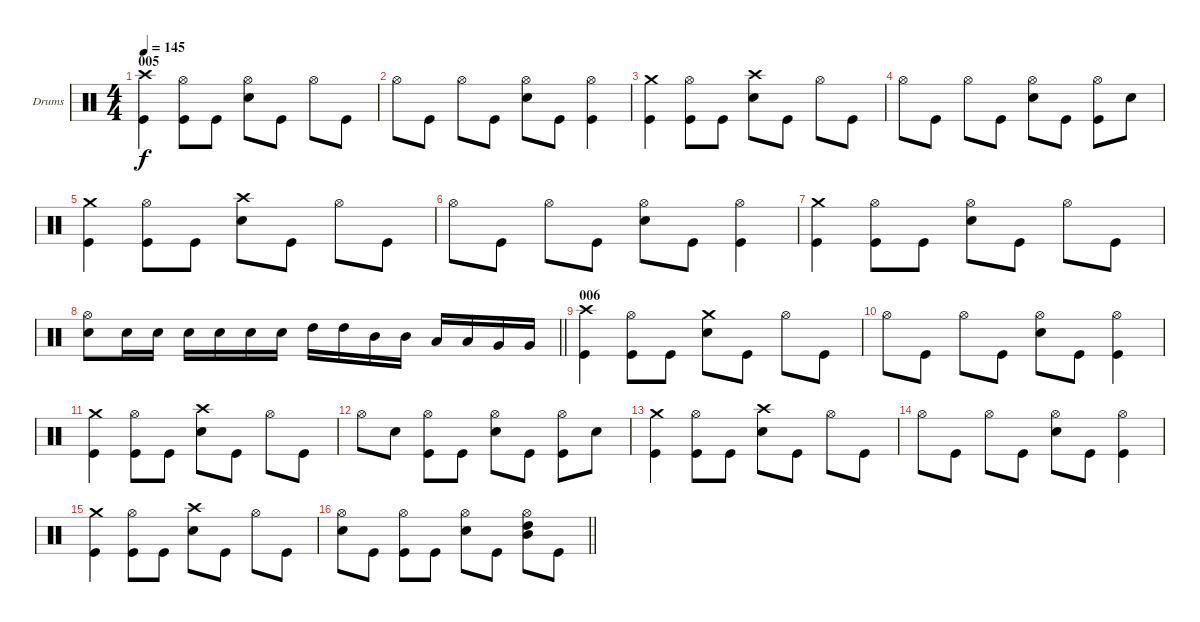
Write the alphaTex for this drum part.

\bracketExtendMode groupsimilarinstruments
\firstSystemTrackNameOrientation horizontal
\otherSystemsTrackNameOrientation horizontal
\track ("drums (Anton Zulganov)" "Drums") {instrument percussion}
\staff {score}
\articulation defaults
\ts (4 4)
\section ("" "005")
\tempo 145
\clef neutral
\ks aminor
("Kick (hit)" "Crash high (hit)").4{dy f} ("Hi-Hat (open)" "Kick (hit)").8 "Kick (hit)".8 ("Hi-Hat (open)" "Snare (hit) 2").8 "Kick (hit)".8 "Hi-Hat (open)".8 "Kick (hit)".8 |
"Hi-Hat (open)".8 "Kick (hit)".8 "Hi-Hat (open)".8 "Kick (hit)".8 ("Hi-Hat (open)" "Snare (hit) 2").8 "Kick (hit)".8 ("Hi-Hat (open)" "Kick (hit)").4 |
("Crash medium (hit)" "Kick (hit)").4 ("Hi-Hat (open)" "Kick (hit)").8 "Kick (hit)".8 ("Snare (hit) 2" "Crash high (hit)").8 "Kick (hit)".8 "Hi-Hat (open)".8 "Kick (hit)".8 |
"Hi-Hat (open)".8 "Kick (hit)".8 "Hi-Hat (open)".8 "Kick (hit)".8 ("Hi-Hat (open)" "Snare (hit) 2").8 "Kick (hit)".8 ("Hi-Hat (open)" "Kick (hit)").8 "Snare (hit) 2".8 |
("Crash medium (hit)" "Kick (hit)").4 ("Hi-Hat (open)" "Kick (hit)").8 "Kick (hit)".8 ("Snare (hit) 2" "Crash high (hit)").8 "Kick (hit)".8 "Hi-Hat (open)".8 "Kick (hit)".8 |
"Hi-Hat (open)".8 "Kick (hit)".8 "Hi-Hat (open)".8 "Kick (hit)".8 ("Hi-Hat (open)" "Snare (hit) 2").8 "Kick (hit)".8 ("Hi-Hat (open)" "Kick (hit)").4 |
("Crash medium (hit)" "Kick (hit)").4 ("Hi-Hat (open)" "Kick (hit)").8 "Kick (hit)".8 ("Hi-Hat (open)" "Snare (hit) 2").8 "Kick (hit)".8 "Hi-Hat (open)".8 "Kick (hit)".8 |
\barLineRight lightlight
("Hi-Hat (open)" "Snare (hit) 2").8 "Snare (hit) 2".16 "Snare (hit) 2".16 "Snare (hit) 2".16 "Snare (hit) 2".16 "Snare (hit) 2".16 "Snare (hit) 2".16 "High Tom (hit)".16 "High Tom (hit)".16 "Mid Tom (hit)".16 "Mid Tom (hit)".16 "Low Tom (hit)".16 "Low Tom (hit)".16 "Very Low Tom (hit)".16 "Very Low Tom (hit)".16 |
\section ("" "006")
("Kick (hit)" "Crash high (hit)").4 ("Hi-Hat (open)" "Kick (hit)").8 "Kick (hit)".8 ("Crash medium (hit)" "Snare (hit) 2").8 "Kick (hit)".8 "Hi-Hat (open)".8 "Kick (hit)".8 |
"Hi-Hat (open)".8 "Kick (hit)".8 "Hi-Hat (open)".8 "Kick (hit)".8 ("Hi-Hat (open)" "Snare (hit) 2").8 "Kick (hit)".8 ("Hi-Hat (open)" "Kick (hit)").4 |
("Crash medium (hit)" "Kick (hit)").4 ("Hi-Hat (open)" "Kick (hit)").8 "Kick (hit)".8 ("Snare (hit) 2" "Crash high (hit)").8 "Kick (hit)".8 "Hi-Hat (open)".8 "Kick (hit)".8 |
"Hi-Hat (open)".8 "Snare (hit) 2".8 ("Hi-Hat (open)" "Kick (hit)").8 "Kick (hit)".8 ("Hi-Hat (open)" "Snare (hit) 2").8 "Kick (hit)".8 ("Hi-Hat (open)" "Kick (hit)").8 "Snare (hit) 2".8 |
("Crash medium (hit)" "Kick (hit)").4 ("Hi-Hat (open)" "Kick (hit)").8 "Kick (hit)".8 ("Snare (hit) 2" "Crash high (hit)").8 "Kick (hit)".8 "Hi-Hat (open)".8 "Kick (hit)".8 |
"Hi-Hat (open)".8 "Kick (hit)".8 "Hi-Hat (open)".8 "Kick (hit)".8 ("Hi-Hat (open)" "Snare (hit) 2").8 "Kick (hit)".8 ("Hi-Hat (open)" "Kick (hit)").4 |
("Crash medium (hit)" "Kick (hit)").4 ("Hi-Hat (open)" "Kick (hit)").8 "Kick (hit)".8 ("Snare (hit) 2" "Crash high (hit)").8 "Kick (hit)".8 "Hi-Hat (open)".8 "Kick (hit)".8 |
\barLineRight lightlight
("Hi-Hat (open)" "Snare (hit) 2").8 "Kick (hit)".8 ("Hi-Hat (open)" "Kick (hit)").8 "Kick (hit)".8 ("Hi-Hat (open)" "Snare (hit) 2").8 "Kick (hit)".8 ("Hi-Hat (open)" "High Tom (hit)" "Mid Tom (hit)").8 "Kick (hit)".8
